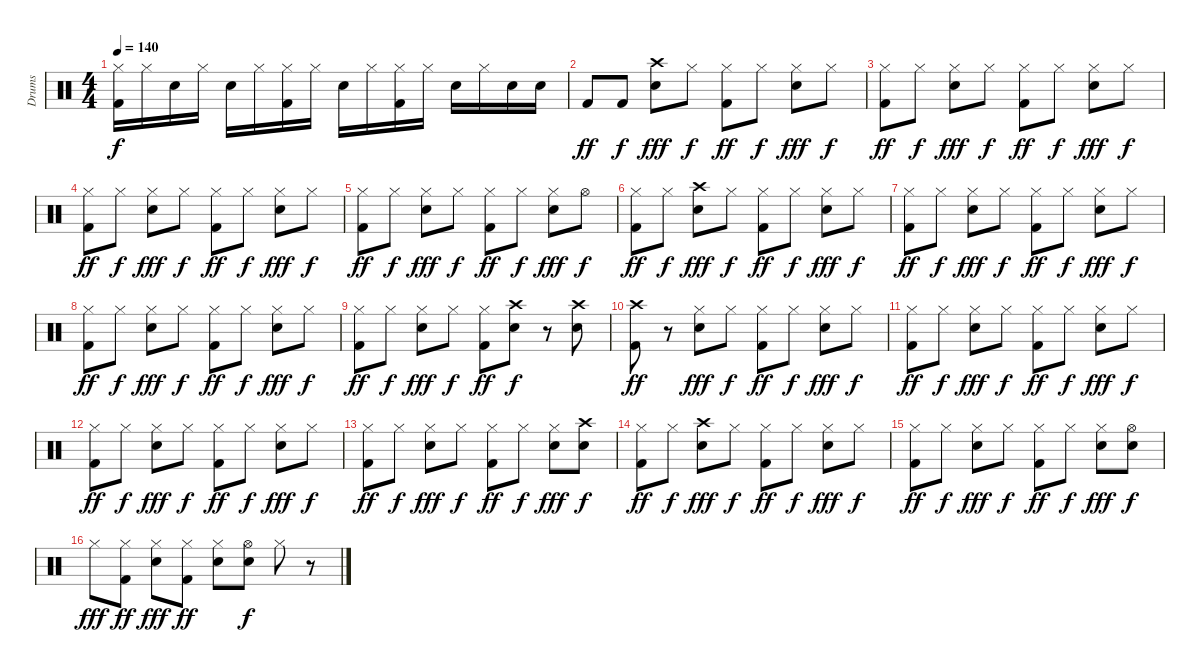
\track ("Drums" "Drums") {instrument percussion}
\staff {score}
\articulation defaults
\ts (4 4)
\tempo 140
\clef neutral
\ks c
("Hi-Hat (closed)" "Kick (hit) 2").16{dy f} "Hi-Hat (closed)".16 "Snare (hit) 2".16 "Hi-Hat (closed)".16 "Snare (hit) 2".16 "Hi-Hat (closed)".16 ("Hi-Hat (closed)" "Kick (hit) 2").16 "Hi-Hat (closed)".16 "Snare (hit) 2".16 "Hi-Hat (closed)".16 ("Hi-Hat (closed)" "Kick (hit) 2").16 "Hi-Hat (closed)".16 "Snare (hit) 2".16 "Hi-Hat (closed)".16 "Snare (hit) 2".16 "Snare (hit) 2".16 |
"Kick (hit) 2".8{dy ff} "Kick (hit) 2".8{dy f} ("Crash high (hit)" "Snare (hit) 2").8{dy fff} "Hi-Hat (closed)".8{dy f} ("Hi-Hat (closed)" "Kick (hit) 2").8{dy ff} "Hi-Hat (closed)".8{dy f} ("Hi-Hat (closed)" "Snare (hit) 2").8{dy fff} "Hi-Hat (closed)".8{dy f} |
("Hi-Hat (closed)" "Kick (hit) 2").8{dy ff} "Hi-Hat (closed)".8{dy f} ("Hi-Hat (closed)" "Snare (hit) 2").8{dy fff} "Hi-Hat (closed)".8{dy f} ("Hi-Hat (closed)" "Kick (hit) 2").8{dy ff} "Hi-Hat (closed)".8{dy f} ("Hi-Hat (closed)" "Snare (hit) 2").8{dy fff} "Hi-Hat (closed)".8{dy f} |
("Hi-Hat (closed)" "Kick (hit) 2").8{dy ff} "Hi-Hat (closed)".8{dy f} ("Hi-Hat (closed)" "Snare (hit) 2").8{dy fff} "Hi-Hat (closed)".8{dy f} ("Hi-Hat (closed)" "Kick (hit) 2").8{dy ff} "Hi-Hat (closed)".8{dy f} ("Hi-Hat (closed)" "Snare (hit) 2").8{dy fff} "Hi-Hat (closed)".8{dy f} |
("Hi-Hat (closed)" "Kick (hit) 2").8{dy ff} "Hi-Hat (closed)".8{dy f} ("Hi-Hat (closed)" "Snare (hit) 2").8{dy fff} "Hi-Hat (closed)".8{dy f} ("Hi-Hat (closed)" "Kick (hit) 2").8{dy ff} "Hi-Hat (closed)".8{dy f} ("Hi-Hat (closed)" "Snare (hit) 2").8{dy fff} "Hi-Hat (open)".8{dy f} |
("Hi-Hat (closed)" "Kick (hit) 2").8{dy ff} "Hi-Hat (closed)".8{dy f} ("Crash high (hit)" "Snare (hit) 2").8{dy fff} "Hi-Hat (closed)".8{dy f} ("Hi-Hat (closed)" "Kick (hit) 2").8{dy ff} "Hi-Hat (closed)".8{dy f} ("Hi-Hat (closed)" "Snare (hit) 2").8{dy fff} "Hi-Hat (closed)".8{dy f} |
("Hi-Hat (closed)" "Kick (hit) 2").8{dy ff} "Hi-Hat (closed)".8{dy f} ("Hi-Hat (closed)" "Snare (hit) 2").8{dy fff} "Hi-Hat (closed)".8{dy f} ("Hi-Hat (closed)" "Kick (hit) 2").8{dy ff} "Hi-Hat (closed)".8{dy f} ("Hi-Hat (closed)" "Snare (hit) 2").8{dy fff} "Hi-Hat (closed)".8{dy f} |
("Hi-Hat (closed)" "Kick (hit) 2").8{dy ff} "Hi-Hat (closed)".8{dy f} ("Hi-Hat (closed)" "Snare (hit) 2").8{dy fff} "Hi-Hat (closed)".8{dy f} ("Hi-Hat (closed)" "Kick (hit) 2").8{dy ff} "Hi-Hat (closed)".8{dy f} ("Hi-Hat (closed)" "Snare (hit) 2").8{dy fff} "Hi-Hat (closed)".8{dy f} |
("Hi-Hat (closed)" "Kick (hit) 2").8{dy ff} "Hi-Hat (closed)".8{dy f} ("Hi-Hat (closed)" "Snare (hit) 2").8{dy fff} "Hi-Hat (closed)".8{dy f} ("Hi-Hat (closed)" "Kick (hit) 2").8{dy ff} ("Crash high (hit)" "Snare (hit) 2").8{dy f} r.8 ("Crash high (hit)" "Snare (hit) 2").8 |
("Crash high (hit)" "Kick (hit) 2").8{dy ff} r.8 ("Hi-Hat (closed)" "Snare (hit) 2").8{dy fff} "Hi-Hat (closed)".8{dy f} ("Hi-Hat (closed)" "Kick (hit) 2").8{dy ff} "Hi-Hat (closed)".8{dy f} ("Hi-Hat (closed)" "Snare (hit) 2").8{dy fff} "Hi-Hat (closed)".8{dy f} |
("Hi-Hat (closed)" "Kick (hit) 2").8{dy ff} "Hi-Hat (closed)".8{dy f} ("Hi-Hat (closed)" "Snare (hit) 2").8{dy fff} "Hi-Hat (closed)".8{dy f} ("Hi-Hat (closed)" "Kick (hit) 2").8{dy ff} "Hi-Hat (closed)".8{dy f} ("Hi-Hat (closed)" "Snare (hit) 2").8{dy fff} "Hi-Hat (closed)".8{dy f} |
("Hi-Hat (closed)" "Kick (hit) 2").8{dy ff} "Hi-Hat (closed)".8{dy f} ("Hi-Hat (closed)" "Snare (hit) 2").8{dy fff} "Hi-Hat (closed)".8{dy f} ("Hi-Hat (closed)" "Kick (hit) 2").8{dy ff} "Hi-Hat (closed)".8{dy f} ("Hi-Hat (closed)" "Snare (hit) 2").8{dy fff} "Hi-Hat (closed)".8{dy f} |
("Hi-Hat (closed)" "Kick (hit) 2").8{dy ff} "Hi-Hat (closed)".8{dy f} ("Hi-Hat (closed)" "Snare (hit) 2").8{dy fff} "Hi-Hat (closed)".8{dy f} ("Hi-Hat (closed)" "Kick (hit) 2").8{dy ff} "Hi-Hat (closed)".8{dy f} ("Hi-Hat (closed)" "Snare (hit) 2").8{dy fff} ("Crash high (hit)" "Snare (hit) 2").8{dy f} |
("Hi-Hat (closed)" "Kick (hit) 2").8{dy ff} "Hi-Hat (closed)".8{dy f} ("Crash high (hit)" "Snare (hit) 2").8{dy fff} "Hi-Hat (closed)".8{dy f} ("Hi-Hat (closed)" "Kick (hit) 2").8{dy ff} "Hi-Hat (closed)".8{dy f} ("Hi-Hat (closed)" "Snare (hit) 2").8{dy fff} "Hi-Hat (closed)".8{dy f} |
("Hi-Hat (closed)" "Kick (hit) 2").8{dy ff} "Hi-Hat (closed)".8{dy f} ("Hi-Hat (closed)" "Snare (hit) 2").8{dy fff} "Hi-Hat (closed)".8{dy f} ("Hi-Hat (closed)" "Kick (hit) 2").8{dy ff} "Hi-Hat (closed)".8{dy f} ("Hi-Hat (closed)" "Snare (hit) 2").8{dy fff} ("Hi-Hat (open)" "Snare (hit) 2").8{dy f} |
"Hi-Hat (closed)".8{dy fff} ("Hi-Hat (closed)" "Kick (hit) 2").8{dy ff} ("Hi-Hat (closed)" "Snare (hit) 2").8{dy fff} ("Hi-Hat (closed)" "Kick (hit) 2").8{dy ff} ("Hi-Hat (closed)" "Snare (hit) 2").8 ("Hi-Hat (open)" "Snare (hit) 2").8{dy f} "Hi-Hat (closed)".8 r.8
